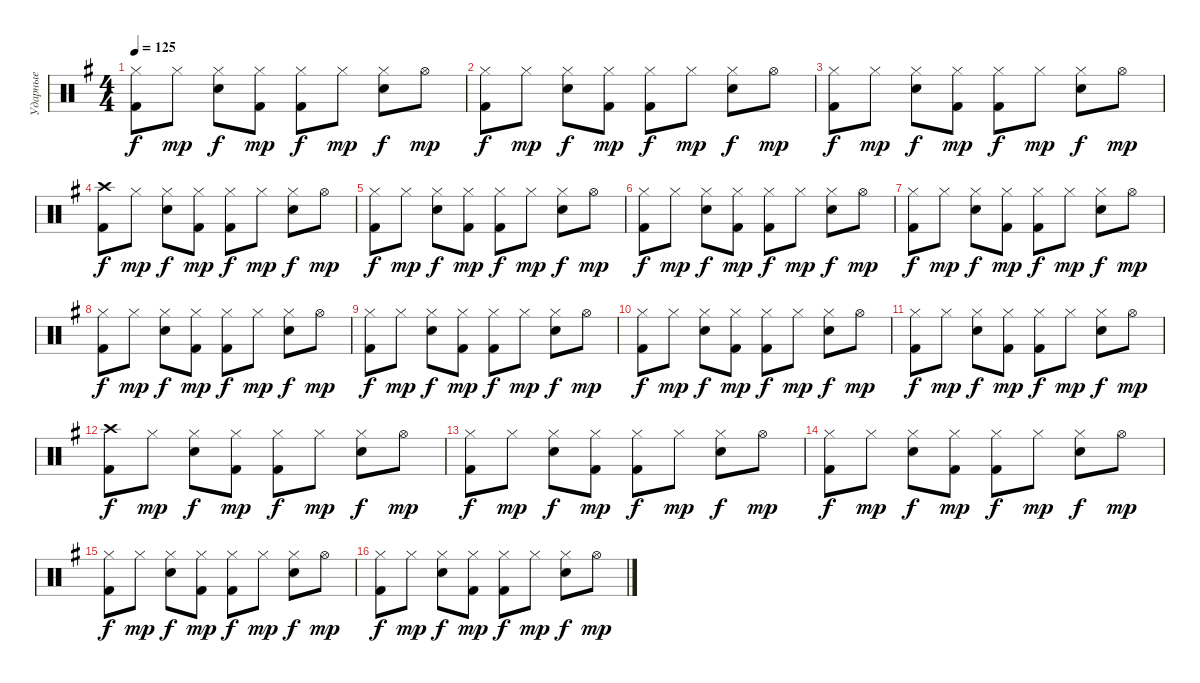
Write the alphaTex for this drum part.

\track ("Ударные" "Ударные") {instrument percussion}
\staff {score}
\articulation defaults
\ts (4 4)
\tempo 125
\clef neutral
\ks eminor
("Hi-Hat (closed)" "Kick (hit) 2").8{dy f} "Hi-Hat (closed)".8{dy mp} ("Hi-Hat (closed)" "Snare (hit) 2").8{dy f} ("Hi-Hat (closed)" "Kick (hit) 2").8{dy mp} ("Hi-Hat (closed)" "Kick (hit) 2").8{dy f} "Hi-Hat (closed)".8{dy mp} ("Hi-Hat (closed)" "Snare (hit) 2").8{dy f} "Hi-Hat (open)".8{dy mp} |
("Hi-Hat (closed)" "Kick (hit) 2").8{dy f} "Hi-Hat (closed)".8{dy mp} ("Hi-Hat (closed)" "Snare (hit) 2").8{dy f} ("Hi-Hat (closed)" "Kick (hit) 2").8{dy mp} ("Hi-Hat (closed)" "Kick (hit) 2").8{dy f} "Hi-Hat (closed)".8{dy mp} ("Hi-Hat (closed)" "Snare (hit) 2").8{dy f} "Hi-Hat (open)".8{dy mp} |
("Hi-Hat (closed)" "Kick (hit) 2").8{dy f} "Hi-Hat (closed)".8{dy mp} ("Hi-Hat (closed)" "Snare (hit) 2").8{dy f} ("Hi-Hat (closed)" "Kick (hit) 2").8{dy mp} ("Hi-Hat (closed)" "Kick (hit) 2").8{dy f} "Hi-Hat (closed)".8{dy mp} ("Hi-Hat (closed)" "Snare (hit) 2").8{dy f} "Hi-Hat (open)".8{dy mp} |
("Crash high (hit)" "Kick (hit) 2").8{dy f} "Hi-Hat (closed)".8{dy mp} ("Hi-Hat (closed)" "Snare (hit) 2").8{dy f} ("Hi-Hat (closed)" "Kick (hit) 2").8{dy mp} ("Hi-Hat (closed)" "Kick (hit) 2").8{dy f} "Hi-Hat (closed)".8{dy mp} ("Hi-Hat (closed)" "Snare (hit) 2").8{dy f} "Hi-Hat (open)".8{dy mp} |
("Hi-Hat (closed)" "Kick (hit) 2").8{dy f} "Hi-Hat (closed)".8{dy mp} ("Hi-Hat (closed)" "Snare (hit) 2").8{dy f} ("Hi-Hat (closed)" "Kick (hit) 2").8{dy mp} ("Hi-Hat (closed)" "Kick (hit) 2").8{dy f} "Hi-Hat (closed)".8{dy mp} ("Hi-Hat (closed)" "Snare (hit) 2").8{dy f} "Hi-Hat (open)".8{dy mp} |
("Hi-Hat (closed)" "Kick (hit) 2").8{dy f} "Hi-Hat (closed)".8{dy mp} ("Hi-Hat (closed)" "Snare (hit) 2").8{dy f} ("Hi-Hat (closed)" "Kick (hit) 2").8{dy mp} ("Hi-Hat (closed)" "Kick (hit) 2").8{dy f} "Hi-Hat (closed)".8{dy mp} ("Hi-Hat (closed)" "Snare (hit) 2").8{dy f} "Hi-Hat (open)".8{dy mp} |
("Hi-Hat (closed)" "Kick (hit) 2").8{dy f} "Hi-Hat (closed)".8{dy mp} ("Hi-Hat (closed)" "Snare (hit) 2").8{dy f} ("Hi-Hat (closed)" "Kick (hit) 2").8{dy mp} ("Hi-Hat (closed)" "Kick (hit) 2").8{dy f} "Hi-Hat (closed)".8{dy mp} ("Hi-Hat (closed)" "Snare (hit) 2").8{dy f} "Hi-Hat (open)".8{dy mp} |
("Hi-Hat (closed)" "Kick (hit) 2").8{dy f} "Hi-Hat (closed)".8{dy mp} ("Hi-Hat (closed)" "Snare (hit) 2").8{dy f} ("Hi-Hat (closed)" "Kick (hit) 2").8{dy mp} ("Hi-Hat (closed)" "Kick (hit) 2").8{dy f} "Hi-Hat (closed)".8{dy mp} ("Hi-Hat (closed)" "Snare (hit) 2").8{dy f} "Hi-Hat (open)".8{dy mp} |
("Hi-Hat (closed)" "Kick (hit) 2").8{dy f} "Hi-Hat (closed)".8{dy mp} ("Hi-Hat (closed)" "Snare (hit) 2").8{dy f} ("Hi-Hat (closed)" "Kick (hit) 2").8{dy mp} ("Hi-Hat (closed)" "Kick (hit) 2").8{dy f} "Hi-Hat (closed)".8{dy mp} ("Hi-Hat (closed)" "Snare (hit) 2").8{dy f} "Hi-Hat (open)".8{dy mp} |
("Hi-Hat (closed)" "Kick (hit) 2").8{dy f} "Hi-Hat (closed)".8{dy mp} ("Hi-Hat (closed)" "Snare (hit) 2").8{dy f} ("Hi-Hat (closed)" "Kick (hit) 2").8{dy mp} ("Hi-Hat (closed)" "Kick (hit) 2").8{dy f} "Hi-Hat (closed)".8{dy mp} ("Hi-Hat (closed)" "Snare (hit) 2").8{dy f} "Hi-Hat (open)".8{dy mp} |
("Hi-Hat (closed)" "Kick (hit) 2").8{dy f} "Hi-Hat (closed)".8{dy mp} ("Hi-Hat (closed)" "Snare (hit) 2").8{dy f} ("Hi-Hat (closed)" "Kick (hit) 2").8{dy mp} ("Hi-Hat (closed)" "Kick (hit) 2").8{dy f} "Hi-Hat (closed)".8{dy mp} ("Hi-Hat (closed)" "Snare (hit) 2").8{dy f} "Hi-Hat (open)".8{dy mp} |
("Crash high (hit)" "Kick (hit) 2").8{dy f} "Hi-Hat (closed)".8{dy mp} ("Hi-Hat (closed)" "Snare (hit) 2").8{dy f} ("Hi-Hat (closed)" "Kick (hit) 2").8{dy mp} ("Hi-Hat (closed)" "Kick (hit) 2").8{dy f} "Hi-Hat (closed)".8{dy mp} ("Hi-Hat (closed)" "Snare (hit) 2").8{dy f} "Hi-Hat (open)".8{dy mp} |
("Hi-Hat (closed)" "Kick (hit) 2").8{dy f} "Hi-Hat (closed)".8{dy mp} ("Hi-Hat (closed)" "Snare (hit) 2").8{dy f} ("Hi-Hat (closed)" "Kick (hit) 2").8{dy mp} ("Hi-Hat (closed)" "Kick (hit) 2").8{dy f} "Hi-Hat (closed)".8{dy mp} ("Hi-Hat (closed)" "Snare (hit) 2").8{dy f} "Hi-Hat (open)".8{dy mp} |
("Hi-Hat (closed)" "Kick (hit) 2").8{dy f} "Hi-Hat (closed)".8{dy mp} ("Hi-Hat (closed)" "Snare (hit) 2").8{dy f} ("Hi-Hat (closed)" "Kick (hit) 2").8{dy mp} ("Hi-Hat (closed)" "Kick (hit) 2").8{dy f} "Hi-Hat (closed)".8{dy mp} ("Hi-Hat (closed)" "Snare (hit) 2").8{dy f} "Hi-Hat (open)".8{dy mp} |
("Hi-Hat (closed)" "Kick (hit) 2").8{dy f} "Hi-Hat (closed)".8{dy mp} ("Hi-Hat (closed)" "Snare (hit) 2").8{dy f} ("Hi-Hat (closed)" "Kick (hit) 2").8{dy mp} ("Hi-Hat (closed)" "Kick (hit) 2").8{dy f} "Hi-Hat (closed)".8{dy mp} ("Hi-Hat (closed)" "Snare (hit) 2").8{dy f} "Hi-Hat (open)".8{dy mp} |
("Hi-Hat (closed)" "Kick (hit) 2").8{dy f} "Hi-Hat (closed)".8{dy mp} ("Hi-Hat (closed)" "Snare (hit) 2").8{dy f} ("Hi-Hat (closed)" "Kick (hit) 2").8{dy mp} ("Hi-Hat (closed)" "Kick (hit) 2").8{dy f} "Hi-Hat (closed)".8{dy mp} ("Hi-Hat (closed)" "Snare (hit) 2").8{dy f} "Hi-Hat (open)".8{dy mp}
